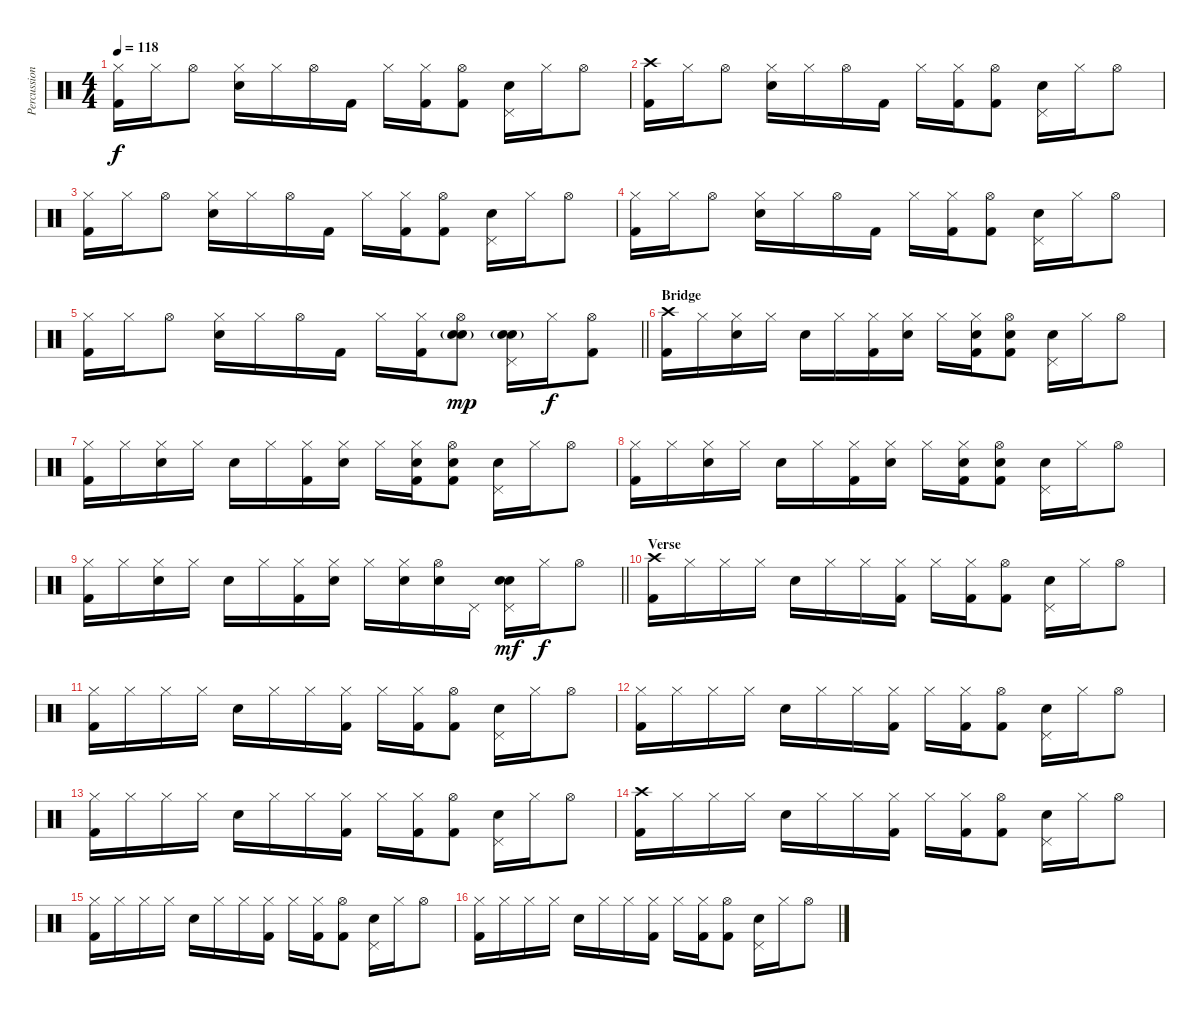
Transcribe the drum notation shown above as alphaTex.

\track ("Percussion" "Percussion") {instrument percussion}
\staff {score}
\articulation defaults
\ts (4 4)
\tempo 118
\clef neutral
\ks c
("Hi-Hat (closed)" "Kick (hit) 2").16{dy f} "Hi-Hat (closed)".16 "Hi-Hat (open)".8 ("Hi-Hat (closed)" "Electric Snare (hit)").16 "Hi-Hat (closed)".16 "Hi-Hat (open)".16 "Kick (hit) 2".16 "Hi-Hat (closed)".16 ("Hi-Hat (closed)" "Kick (hit) 2").16 ("Hi-Hat (open)" "Kick (hit) 2").8 ("Pedal Hi-Hat (hit)" "Electric Snare (hit)").16 "Hi-Hat (closed)".16 "Hi-Hat (open)".8 |
("Crash high (hit)" "Kick (hit) 2").16 "Hi-Hat (closed)".16 "Hi-Hat (open)".8 ("Hi-Hat (closed)" "Electric Snare (hit)").16 "Hi-Hat (closed)".16 "Hi-Hat (open)".16 "Kick (hit) 2".16 "Hi-Hat (closed)".16 ("Hi-Hat (closed)" "Kick (hit) 2").16 ("Hi-Hat (open)" "Kick (hit) 2").8 ("Pedal Hi-Hat (hit)" "Electric Snare (hit)").16 "Hi-Hat (closed)".16 "Hi-Hat (open)".8 |
("Hi-Hat (closed)" "Kick (hit) 2").16 "Hi-Hat (closed)".16 "Hi-Hat (open)".8 ("Hi-Hat (closed)" "Electric Snare (hit)").16 "Hi-Hat (closed)".16 "Hi-Hat (open)".16 "Kick (hit) 2".16 "Hi-Hat (closed)".16 ("Hi-Hat (closed)" "Kick (hit) 2").16 ("Hi-Hat (open)" "Kick (hit) 2").8 ("Pedal Hi-Hat (hit)" "Electric Snare (hit)").16 "Hi-Hat (closed)".16 "Hi-Hat (open)".8 |
("Hi-Hat (closed)" "Kick (hit) 2").16 "Hi-Hat (closed)".16 "Hi-Hat (open)".8 ("Hi-Hat (closed)" "Electric Snare (hit)").16 "Hi-Hat (closed)".16 "Hi-Hat (open)".16 "Kick (hit) 2".16 "Hi-Hat (closed)".16 ("Hi-Hat (closed)" "Kick (hit) 2").16 ("Hi-Hat (open)" "Kick (hit) 2").8 ("Pedal Hi-Hat (hit)" "Electric Snare (hit)").16 "Hi-Hat (closed)".16 "Hi-Hat (open)".8 |
\barLineRight lightlight
("Hi-Hat (closed)" "Kick (hit) 2").16 "Hi-Hat (closed)".16 "Hi-Hat (open)".8 ("Hi-Hat (closed)" "Electric Snare (hit)").16 "Hi-Hat (closed)".16 "Hi-Hat (open)".16 "Kick (hit) 2".16 "Hi-Hat (closed)".16 ("Hi-Hat (closed)" "Kick (hit) 2").16 ("Hi-Hat (open)" "Electric Snare (hit)" "Hand Clap (hit)"{g}).8{dy mp} ("Pedal Hi-Hat (hit)" "Electric Snare (hit)" "Hand Clap (hit)"{g}).16 "Hi-Hat (closed)".16{dy f} ("Hi-Hat (open)" "Kick (hit) 2").8 |
\section ("" "Bridge")
("Crash high (hit)" "Kick (hit) 2").16 "Hi-Hat (closed)".16 ("Hi-Hat (closed)" "Snare (hit) 2").16 "Hi-Hat (closed)".16 "Electric Snare (hit)".16 "Hi-Hat (closed)".16 ("Hi-Hat (closed)" "Kick (hit) 2").16 ("Hi-Hat (closed)" "Snare (hit) 2").16 "Hi-Hat (closed)".16 ("Hi-Hat (closed)" "Snare (hit) 2" "Kick (hit) 2").16 ("Hi-Hat (open)" "Snare (hit) 2" "Kick (hit) 2").8 ("Pedal Hi-Hat (hit)" "Electric Snare (hit)").16 "Hi-Hat (closed)".16 "Hi-Hat (open)".8 |
("Hi-Hat (closed)" "Kick (hit) 2").16 "Hi-Hat (closed)".16 ("Hi-Hat (closed)" "Snare (hit) 2").16 "Hi-Hat (closed)".16 "Electric Snare (hit)".16 "Hi-Hat (closed)".16 ("Hi-Hat (closed)" "Kick (hit) 2").16 ("Hi-Hat (closed)" "Snare (hit) 2").16 "Hi-Hat (closed)".16 ("Hi-Hat (closed)" "Snare (hit) 2" "Kick (hit) 2").16 ("Hi-Hat (open)" "Snare (hit) 2" "Kick (hit) 2").8 ("Pedal Hi-Hat (hit)" "Electric Snare (hit)").16 "Hi-Hat (closed)".16 "Hi-Hat (open)".8 |
("Hi-Hat (closed)" "Kick (hit) 2").16 "Hi-Hat (closed)".16 ("Hi-Hat (closed)" "Snare (hit) 2").16 "Hi-Hat (closed)".16 "Electric Snare (hit)".16 "Hi-Hat (closed)".16 ("Hi-Hat (closed)" "Kick (hit) 2").16 ("Hi-Hat (closed)" "Snare (hit) 2").16 "Hi-Hat (closed)".16 ("Hi-Hat (closed)" "Snare (hit) 2" "Kick (hit) 2").16 ("Hi-Hat (open)" "Snare (hit) 2" "Kick (hit) 2").8 ("Pedal Hi-Hat (hit)" "Electric Snare (hit)").16 "Hi-Hat (closed)".16 "Hi-Hat (open)".8 |
\barLineRight lightlight
("Hi-Hat (closed)" "Kick (hit) 2").16 "Hi-Hat (closed)".16 ("Hi-Hat (closed)" "Snare (hit) 2").16 "Hi-Hat (closed)".16 "Electric Snare (hit)".16 "Hi-Hat (closed)".16 ("Hi-Hat (closed)" "Kick (hit) 2").16 ("Hi-Hat (closed)" "Snare (hit) 2").16 "Hi-Hat (closed)".16 ("Hi-Hat (closed)" "Electric Snare (hit)").16 ("Hi-Hat (open)" "Electric Snare (hit)").16 "Pedal Hi-Hat (hit)".16 ("Pedal Hi-Hat (hit)" "Electric Snare (hit)" "Hand Clap (hit)").16{dy mf} "Hi-Hat (closed)".16{dy f} "Hi-Hat (open)".8 |
\section ("" "Verse")
("Crash high (hit)" "Kick (hit) 2").16 "Hi-Hat (closed)".16 "Hi-Hat (closed)".16 "Hi-Hat (closed)".16 "Electric Snare (hit)".16 "Hi-Hat (closed)".16 "Hi-Hat (closed)".16 ("Hi-Hat (closed)" "Kick (hit) 2").16 "Hi-Hat (closed)".16 ("Hi-Hat (closed)" "Kick (hit) 2").16 ("Hi-Hat (open)" "Kick (hit) 2").8 ("Pedal Hi-Hat (hit)" "Electric Snare (hit)").16 "Hi-Hat (closed)".16 "Hi-Hat (open)".8 |
("Hi-Hat (closed)" "Kick (hit) 2").16 "Hi-Hat (closed)".16 "Hi-Hat (closed)".16 "Hi-Hat (closed)".16 "Electric Snare (hit)".16 "Hi-Hat (closed)".16 "Hi-Hat (closed)".16 ("Hi-Hat (closed)" "Kick (hit) 2").16 "Hi-Hat (closed)".16 ("Hi-Hat (closed)" "Kick (hit) 2").16 ("Hi-Hat (open)" "Kick (hit) 2").8 ("Pedal Hi-Hat (hit)" "Electric Snare (hit)").16 "Hi-Hat (closed)".16 "Hi-Hat (open)".8 |
("Hi-Hat (closed)" "Kick (hit) 2").16 "Hi-Hat (closed)".16 "Hi-Hat (closed)".16 "Hi-Hat (closed)".16 "Electric Snare (hit)".16 "Hi-Hat (closed)".16 "Hi-Hat (closed)".16 ("Hi-Hat (closed)" "Kick (hit) 2").16 "Hi-Hat (closed)".16 ("Hi-Hat (closed)" "Kick (hit) 2").16 ("Hi-Hat (open)" "Kick (hit) 2").8 ("Pedal Hi-Hat (hit)" "Electric Snare (hit)").16 "Hi-Hat (closed)".16 "Hi-Hat (open)".8 |
("Hi-Hat (closed)" "Kick (hit) 2").16 "Hi-Hat (closed)".16 "Hi-Hat (closed)".16 "Hi-Hat (closed)".16 "Electric Snare (hit)".16 "Hi-Hat (closed)".16 "Hi-Hat (closed)".16 ("Hi-Hat (closed)" "Kick (hit) 2").16 "Hi-Hat (closed)".16 ("Hi-Hat (closed)" "Kick (hit) 2").16 ("Hi-Hat (open)" "Kick (hit) 2").8 ("Pedal Hi-Hat (hit)" "Electric Snare (hit)").16 "Hi-Hat (closed)".16 "Hi-Hat (open)".8 |
("Crash high (hit)" "Kick (hit) 2").16 "Hi-Hat (closed)".16 "Hi-Hat (closed)".16 "Hi-Hat (closed)".16 "Electric Snare (hit)".16 "Hi-Hat (closed)".16 "Hi-Hat (closed)".16 ("Hi-Hat (closed)" "Kick (hit) 2").16 "Hi-Hat (closed)".16 ("Hi-Hat (closed)" "Kick (hit) 2").16 ("Hi-Hat (open)" "Kick (hit) 2").8 ("Pedal Hi-Hat (hit)" "Electric Snare (hit)").16 "Hi-Hat (closed)".16 "Hi-Hat (open)".8 |
("Hi-Hat (closed)" "Kick (hit) 2").16 "Hi-Hat (closed)".16 "Hi-Hat (closed)".16 "Hi-Hat (closed)".16 "Electric Snare (hit)".16 "Hi-Hat (closed)".16 "Hi-Hat (closed)".16 ("Hi-Hat (closed)" "Kick (hit) 2").16 "Hi-Hat (closed)".16 ("Hi-Hat (closed)" "Kick (hit) 2").16 ("Hi-Hat (open)" "Kick (hit) 2").8 ("Pedal Hi-Hat (hit)" "Electric Snare (hit)").16 "Hi-Hat (closed)".16 "Hi-Hat (open)".8 |
("Hi-Hat (closed)" "Kick (hit) 2").16 "Hi-Hat (closed)".16 "Hi-Hat (closed)".16 "Hi-Hat (closed)".16 "Electric Snare (hit)".16 "Hi-Hat (closed)".16 "Hi-Hat (closed)".16 ("Hi-Hat (closed)" "Kick (hit) 2").16 "Hi-Hat (closed)".16 ("Hi-Hat (closed)" "Kick (hit) 2").16 ("Hi-Hat (open)" "Kick (hit) 2").8 ("Pedal Hi-Hat (hit)" "Electric Snare (hit)").16 "Hi-Hat (closed)".16 "Hi-Hat (open)".8
